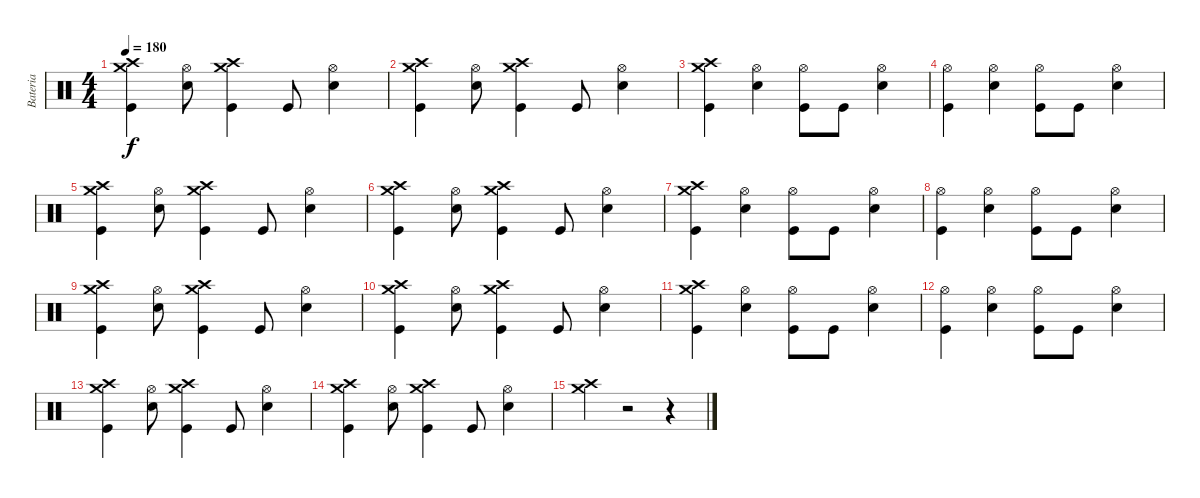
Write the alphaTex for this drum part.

\track ("Bateria" "Bateria") {instrument percussion}
\staff {score}
\articulation defaults
\ts (4 4)
\tempo 180
\clef neutral
\ks c
("Crash medium (hit)" "Crash high (hit)" "Kick (hit)").4{dy f} ("Hi-Hat (open)" "Snare (hit) 2").8 ("Crash medium (hit)" "Crash high (hit)" "Kick (hit)").4 "Kick (hit)".8 ("Hi-Hat (open)" "Snare (hit) 2").4 |
("Crash medium (hit)" "Crash high (hit)" "Kick (hit)").4 ("Hi-Hat (open)" "Snare (hit) 2").8 ("Crash medium (hit)" "Crash high (hit)" "Kick (hit)").4 "Kick (hit)".8 ("Hi-Hat (open)" "Snare (hit) 2").4 |
("Crash medium (hit)" "Crash high (hit)" "Kick (hit)").4 ("Hi-Hat (open)" "Snare (hit) 2").4 ("Hi-Hat (open)" "Kick (hit)").8 "Kick (hit)".8 ("Hi-Hat (open)" "Snare (hit) 2").4 |
("Hi-Hat (open)" "Kick (hit)").4 ("Hi-Hat (open)" "Snare (hit) 2").4 ("Hi-Hat (open)" "Kick (hit)").8 "Kick (hit)".8 ("Hi-Hat (open)" "Snare (hit) 2").4 |
("Crash medium (hit)" "Crash high (hit)" "Kick (hit)").4 ("Hi-Hat (open)" "Snare (hit) 2").8 ("Crash medium (hit)" "Crash high (hit)" "Kick (hit)").4 "Kick (hit)".8 ("Hi-Hat (open)" "Snare (hit) 2").4 |
("Crash medium (hit)" "Crash high (hit)" "Kick (hit)").4 ("Hi-Hat (open)" "Snare (hit) 2").8 ("Crash medium (hit)" "Crash high (hit)" "Kick (hit)").4 "Kick (hit)".8 ("Hi-Hat (open)" "Snare (hit) 2").4 |
("Crash medium (hit)" "Crash high (hit)" "Kick (hit)").4 ("Hi-Hat (open)" "Snare (hit) 2").4 ("Hi-Hat (open)" "Kick (hit)").8 "Kick (hit)".8 ("Hi-Hat (open)" "Snare (hit) 2").4 |
("Hi-Hat (open)" "Kick (hit)").4 ("Hi-Hat (open)" "Snare (hit) 2").4 ("Hi-Hat (open)" "Kick (hit)").8 "Kick (hit)".8 ("Hi-Hat (open)" "Snare (hit) 2").4 |
("Crash medium (hit)" "Crash high (hit)" "Kick (hit)").4 ("Hi-Hat (open)" "Snare (hit) 2").8 ("Crash medium (hit)" "Crash high (hit)" "Kick (hit)").4 "Kick (hit)".8 ("Hi-Hat (open)" "Snare (hit) 2").4 |
("Crash medium (hit)" "Crash high (hit)" "Kick (hit)").4 ("Hi-Hat (open)" "Snare (hit) 2").8 ("Crash medium (hit)" "Crash high (hit)" "Kick (hit)").4 "Kick (hit)".8 ("Hi-Hat (open)" "Snare (hit) 2").4 |
("Crash medium (hit)" "Crash high (hit)" "Kick (hit)").4 ("Hi-Hat (open)" "Snare (hit) 2").4 ("Hi-Hat (open)" "Kick (hit)").8 "Kick (hit)".8 ("Hi-Hat (open)" "Snare (hit) 2").4 |
("Hi-Hat (open)" "Kick (hit)").4 ("Hi-Hat (open)" "Snare (hit) 2").4 ("Hi-Hat (open)" "Kick (hit)").8 "Kick (hit)".8 ("Hi-Hat (open)" "Snare (hit) 2").4 |
("Crash medium (hit)" "Crash high (hit)" "Kick (hit)").4 ("Hi-Hat (open)" "Snare (hit) 2").8 ("Crash medium (hit)" "Crash high (hit)" "Kick (hit)").4 "Kick (hit)".8 ("Hi-Hat (open)" "Snare (hit) 2").4 |
("Crash medium (hit)" "Crash high (hit)" "Kick (hit)").4 ("Hi-Hat (open)" "Snare (hit) 2").8 ("Crash medium (hit)" "Crash high (hit)" "Kick (hit)").4 "Kick (hit)".8 ("Hi-Hat (open)" "Snare (hit) 2").4 |
("Crash medium (hit)" "Crash high (hit)").4 r.2 r.4
